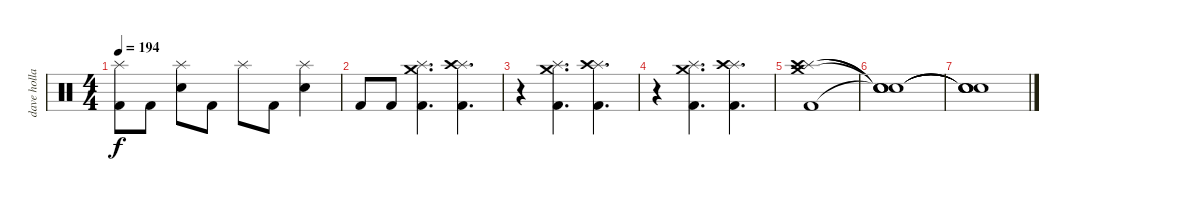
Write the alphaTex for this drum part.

\track ("dave holland" "dave holla") {instrument percussion}
\staff {score}
\articulation defaults
\ts (4 4)
\tempo 194
\clef neutral
\ks c
("Splash (hit)" "Kick (hit) 2").8{dy f} "Kick (hit) 2".8 ("Splash (hit)" "Electric Snare (hit)").8 "Kick (hit) 2".8 "Splash (hit)".8 "Kick (hit) 2".8 ("Splash (hit)" "Electric Snare (hit)").4 |
"Kick (hit) 2".8 "Kick (hit) 2".8 ("Crash medium (hit)" "Splash (hit)" "Kick (hit) 2").4{d} ("Splash (hit)" "Crash high (hit)" "Kick (hit) 2").4{d} |
r.4 ("Crash medium (hit)" "Splash (hit)" "Kick (hit) 2").4{d} ("Splash (hit)" "Crash high (hit)" "Kick (hit) 2").4{d} |
r.4 ("Crash medium (hit)" "Splash (hit)" "Kick (hit) 2").4{d} ("Splash (hit)" "Crash high (hit)" "Kick (hit) 2").4{d} |
("Crash medium (hit)" "Splash (hit)" "Crash high (hit)" "Kick (hit) 2").1 |
("Snare (hit)"{t} "Snare (hit)"{t} "Snare (hit)"{t} "Snare (hit)"{t}).1 |
("Snare (hit)"{t} "Snare (hit)"{t} "Snare (hit)"{t} "Snare (hit)"{t}).1
